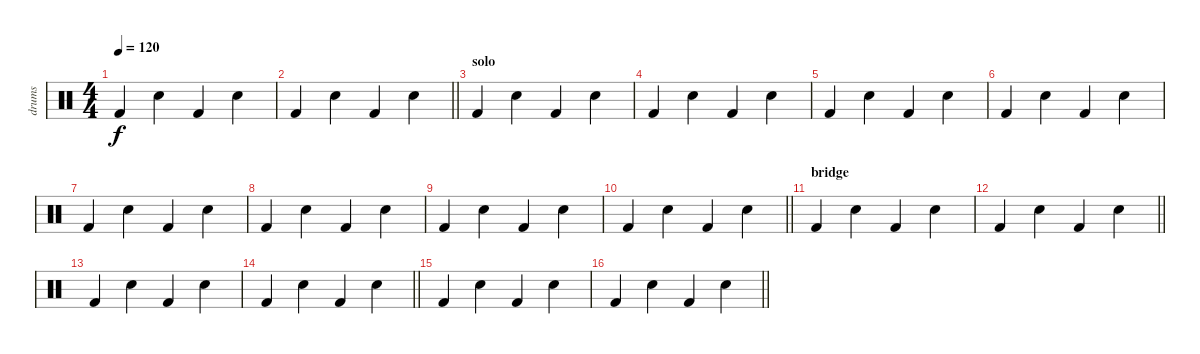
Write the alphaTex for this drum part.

\track ("drums" "drums") {instrument percussion}
\staff {score}
\articulation defaults
\ts (4 4)
\tempo 120
\clef neutral
\ks c "Kick (hit) 2".4{dy f} "Snare (hit) 2".4 "Kick (hit) 2".4 "Snare (hit) 2".4
|
\barLineRight lightlight "Kick (hit) 2".4 "Snare (hit) 2".4 "Kick (hit) 2".4 "Snare (hit) 2".4
|
\section ("" "solo")
"Kick (hit) 2".4 "Snare (hit) 2".4 "Kick (hit) 2".4 "Snare (hit) 2".4 |
"Kick (hit) 2".4 "Snare (hit) 2".4 "Kick (hit) 2".4 "Snare (hit) 2".4 |
"Kick (hit) 2".4 "Snare (hit) 2".4 "Kick (hit) 2".4 "Snare (hit) 2".4 |
"Kick (hit) 2".4 "Snare (hit) 2".4 "Kick (hit) 2".4 "Snare (hit) 2".4 |
"Kick (hit) 2".4 "Snare (hit) 2".4 "Kick (hit) 2".4 "Snare (hit) 2".4 |
"Kick (hit) 2".4 "Snare (hit) 2".4 "Kick (hit) 2".4 "Snare (hit) 2".4 |
"Kick (hit) 2".4 "Snare (hit) 2".4 "Kick (hit) 2".4 "Snare (hit) 2".4 |
\barLineRight lightlight "Kick (hit) 2".4 "Snare (hit) 2".4 "Kick (hit) 2".4 "Snare (hit) 2".4
|
\section ("" "bridge")
"Kick (hit) 2".4 "Snare (hit) 2".4 "Kick (hit) 2".4 "Snare (hit) 2".4 |
\barLineRight lightlight "Kick (hit) 2".4 "Snare (hit) 2".4 "Kick (hit) 2".4 "Snare (hit) 2".4
|
"Kick (hit) 2".4 "Snare (hit) 2".4 "Kick (hit) 2".4 "Snare (hit) 2".4 |
\barLineRight lightlight "Kick (hit) 2".4 "Snare (hit) 2".4 "Kick (hit) 2".4 "Snare (hit) 2".4
|
"Kick (hit) 2".4 "Snare (hit) 2".4 "Kick (hit) 2".4 "Snare (hit) 2".4 |
\barLineRight lightlight "Kick (hit) 2".4 "Snare (hit) 2".4 "Kick (hit) 2".4 "Snare (hit) 2".4
